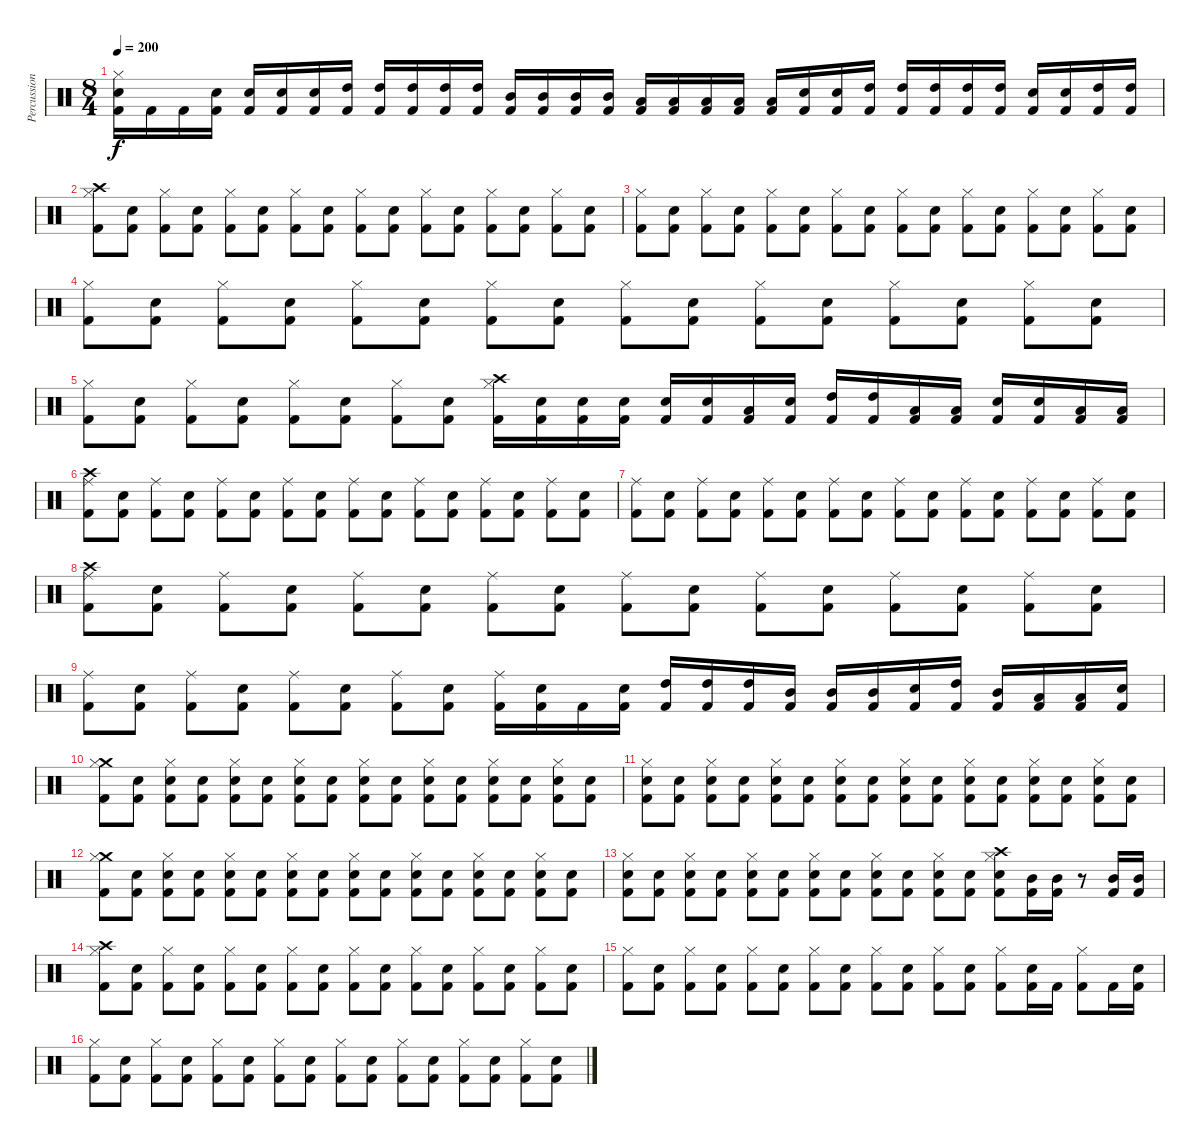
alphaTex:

\track ("Percussion" "Percussion") {instrument percussion}
\staff {score}
\articulation defaults
\ts (8 4)
\tempo 200
\clef neutral
\ks c
("Hi-Hat (closed)" "Electric Snare (hit)" "Kick (hit) 2").16{dy f} "Kick (hit) 2".16 "Kick (hit) 2".16 ("Electric Snare (hit)" "Kick (hit) 2").16 ("Electric Snare (hit)" "Kick (hit) 2").16 ("Electric Snare (hit)" "Kick (hit) 2").16 ("Electric Snare (hit)" "Kick (hit) 2").16 ("High Tom (hit)" "Kick (hit) 2").16 ("High Tom (hit)" "Kick (hit) 2").16 ("High Tom (hit)" "Kick (hit) 2").16 ("High Tom (hit)" "Kick (hit) 2").16 ("High Tom (hit)" "Kick (hit) 2").16 ("Mid Tom (hit)" "Kick (hit) 2").16 ("Mid Tom (hit)" "Kick (hit) 2").16 ("Mid Tom (hit)" "Kick (hit) 2").16 ("Mid Tom (hit)" "Kick (hit) 2").16 ("Low Tom (hit)" "Kick (hit) 2").16 ("Low Tom (hit)" "Kick (hit) 2").16 ("Low Tom (hit)" "Kick (hit) 2").16 ("Low Tom (hit)" "Kick (hit) 2").16 ("Low Tom (hit)" "Kick (hit) 2").16 ("Electric Snare (hit)" "Kick (hit) 2").16 ("Electric Snare (hit)" "Kick (hit) 2").16 ("High Tom (hit)" "Kick (hit) 2").16 ("High Tom (hit)" "Kick (hit) 2").16 ("High Tom (hit)" "Kick (hit) 2").16 ("High Tom (hit)" "Kick (hit) 2").16 ("High Tom (hit)" "Kick (hit) 2").16 ("Electric Snare (hit)" "Kick (hit) 2").16 ("Electric Snare (hit)" "Kick (hit) 2").16 ("High Tom (hit)" "Kick (hit) 2").16 ("High Tom (hit)" "Kick (hit) 2").16 |
("Crash high (hit)" "Hi-Hat (closed)" "Kick (hit) 2").8 ("Electric Snare (hit)" "Kick (hit) 2").8 ("Hi-Hat (closed)" "Kick (hit) 2").8 ("Electric Snare (hit)" "Kick (hit) 2").8 ("Hi-Hat (closed)" "Kick (hit) 2").8 ("Electric Snare (hit)" "Kick (hit) 2").8 ("Hi-Hat (closed)" "Kick (hit) 2").8 ("Electric Snare (hit)" "Kick (hit) 2").8 ("Hi-Hat (closed)" "Kick (hit) 2").8 ("Electric Snare (hit)" "Kick (hit) 2").8 ("Hi-Hat (closed)" "Kick (hit) 2").8 ("Electric Snare (hit)" "Kick (hit) 2").8 ("Hi-Hat (closed)" "Kick (hit) 2").8 ("Electric Snare (hit)" "Kick (hit) 2").8 ("Hi-Hat (closed)" "Kick (hit) 2").8 ("Electric Snare (hit)" "Kick (hit) 2").8 |
("Hi-Hat (closed)" "Kick (hit) 2").8 ("Electric Snare (hit)" "Kick (hit) 2").8 ("Hi-Hat (closed)" "Kick (hit) 2").8 ("Electric Snare (hit)" "Kick (hit) 2").8 ("Hi-Hat (closed)" "Kick (hit) 2").8 ("Electric Snare (hit)" "Kick (hit) 2").8 ("Hi-Hat (closed)" "Kick (hit) 2").8 ("Electric Snare (hit)" "Kick (hit) 2").8 ("Hi-Hat (closed)" "Kick (hit) 2").8 ("Electric Snare (hit)" "Kick (hit) 2").8 ("Hi-Hat (closed)" "Kick (hit) 2").8 ("Electric Snare (hit)" "Kick (hit) 2").8 ("Hi-Hat (closed)" "Kick (hit) 2").8 ("Electric Snare (hit)" "Kick (hit) 2").8 ("Hi-Hat (closed)" "Kick (hit) 2").8 ("Electric Snare (hit)" "Kick (hit) 2").8 |
("Hi-Hat (closed)" "Kick (hit) 2").8 ("Electric Snare (hit)" "Kick (hit) 2").8 ("Hi-Hat (closed)" "Kick (hit) 2").8 ("Electric Snare (hit)" "Kick (hit) 2").8 ("Hi-Hat (closed)" "Kick (hit) 2").8 ("Electric Snare (hit)" "Kick (hit) 2").8 ("Hi-Hat (closed)" "Kick (hit) 2").8 ("Electric Snare (hit)" "Kick (hit) 2").8 ("Hi-Hat (closed)" "Kick (hit) 2").8 ("Electric Snare (hit)" "Kick (hit) 2").8 ("Hi-Hat (closed)" "Kick (hit) 2").8 ("Electric Snare (hit)" "Kick (hit) 2").8 ("Hi-Hat (closed)" "Kick (hit) 2").8 ("Electric Snare (hit)" "Kick (hit) 2").8 ("Hi-Hat (closed)" "Kick (hit) 2").8 ("Electric Snare (hit)" "Kick (hit) 2").8 |
("Hi-Hat (closed)" "Kick (hit) 2").8 ("Electric Snare (hit)" "Kick (hit) 2").8 ("Hi-Hat (closed)" "Kick (hit) 2").8 ("Electric Snare (hit)" "Kick (hit) 2").8 ("Hi-Hat (closed)" "Kick (hit) 2").8 ("Electric Snare (hit)" "Kick (hit) 2").8 ("Hi-Hat (closed)" "Kick (hit) 2").8 ("Electric Snare (hit)" "Kick (hit) 2").8 ("Crash high (hit)" "Hi-Hat (closed)" "Kick (hit) 2").16 ("Electric Snare (hit)" "Kick (hit) 2").16 ("Electric Snare (hit)" "Kick (hit) 2").16 ("Electric Snare (hit)" "Kick (hit) 2").16 ("Electric Snare (hit)" "Kick (hit) 2").16 ("Electric Snare (hit)" "Kick (hit) 2").16 ("Low Tom (hit)" "Kick (hit) 2").16 ("Electric Snare (hit)" "Kick (hit) 2").16 ("High Tom (hit)" "Kick (hit) 2").16 ("High Tom (hit)" "Kick (hit) 2").16 ("Low Tom (hit)" "Kick (hit) 2").16 ("Low Tom (hit)" "Kick (hit) 2").16 ("Electric Snare (hit)" "Kick (hit) 2").16 ("Electric Snare (hit)" "Kick (hit) 2").16 ("Low Tom (hit)" "Kick (hit) 2").16 ("Low Tom (hit)" "Kick (hit) 2").16 |
("Crash high (hit)" "Ride (middle)" "Kick (hit) 2").8 ("Electric Snare (hit)" "Kick (hit) 2").8 ("Ride (middle)" "Kick (hit) 2").8 ("Electric Snare (hit)" "Kick (hit) 2").8 ("Ride (middle)" "Kick (hit) 2").8 ("Electric Snare (hit)" "Kick (hit) 2").8 ("Ride (middle)" "Kick (hit) 2").8 ("Electric Snare (hit)" "Kick (hit) 2").8 ("Ride (middle)" "Kick (hit) 2").8 ("Electric Snare (hit)" "Kick (hit) 2").8 ("Ride (middle)" "Kick (hit) 2").8 ("Electric Snare (hit)" "Kick (hit) 2").8 ("Ride (middle)" "Kick (hit) 2").8 ("Electric Snare (hit)" "Kick (hit) 2").8 ("Ride (middle)" "Kick (hit) 2").8 ("Electric Snare (hit)" "Kick (hit) 2").8 |
("Ride (middle)" "Kick (hit) 2").8 ("Electric Snare (hit)" "Kick (hit) 2").8 ("Ride (middle)" "Kick (hit) 2").8 ("Electric Snare (hit)" "Kick (hit) 2").8 ("Ride (middle)" "Kick (hit) 2").8 ("Electric Snare (hit)" "Kick (hit) 2").8 ("Ride (middle)" "Kick (hit) 2").8 ("Electric Snare (hit)" "Kick (hit) 2").8 ("Ride (middle)" "Kick (hit) 2").8 ("Electric Snare (hit)" "Kick (hit) 2").8 ("Ride (middle)" "Kick (hit) 2").8 ("Electric Snare (hit)" "Kick (hit) 2").8 ("Ride (middle)" "Kick (hit) 2").8 ("Electric Snare (hit)" "Kick (hit) 2").8 ("Ride (middle)" "Kick (hit) 2").8 ("Electric Snare (hit)" "Kick (hit) 2").8 |
("Crash high (hit)" "Ride (middle)" "Kick (hit) 2").8 ("Electric Snare (hit)" "Kick (hit) 2").8 ("Ride (middle)" "Kick (hit) 2").8 ("Electric Snare (hit)" "Kick (hit) 2").8 ("Ride (middle)" "Kick (hit) 2").8 ("Electric Snare (hit)" "Kick (hit) 2").8 ("Ride (middle)" "Kick (hit) 2").8 ("Electric Snare (hit)" "Kick (hit) 2").8 ("Ride (middle)" "Kick (hit) 2").8 ("Electric Snare (hit)" "Kick (hit) 2").8 ("Ride (middle)" "Kick (hit) 2").8 ("Electric Snare (hit)" "Kick (hit) 2").8 ("Ride (middle)" "Kick (hit) 2").8 ("Electric Snare (hit)" "Kick (hit) 2").8 ("Ride (middle)" "Kick (hit) 2").8 ("Electric Snare (hit)" "Kick (hit) 2").8 |
("Ride (middle)" "Kick (hit) 2").8 ("Electric Snare (hit)" "Kick (hit) 2").8 ("Ride (middle)" "Kick (hit) 2").8 ("Electric Snare (hit)" "Kick (hit) 2").8 ("Ride (middle)" "Kick (hit) 2").8 ("Electric Snare (hit)" "Kick (hit) 2").8 ("Ride (middle)" "Kick (hit) 2").8 ("Electric Snare (hit)" "Kick (hit) 2").8 ("Ride (middle)" "Kick (hit) 2").16 ("Electric Snare (hit)" "Kick (hit) 2").16 "Kick (hit) 2".16 ("Electric Snare (hit)" "Kick (hit) 2").16 ("High Tom (hit)" "Kick (hit) 2").16 ("High Tom (hit)" "Kick (hit) 2").16 ("High Tom (hit)" "Kick (hit) 2").16 ("Mid Tom (hit)" "Kick (hit) 2").16 ("Mid Tom (hit)" "Kick (hit) 2").16 ("Mid Tom (hit)" "Kick (hit) 2").16 ("Electric Snare (hit)" "Kick (hit) 2").16 ("High Tom (hit)" "Kick (hit) 2").16 ("Mid Tom (hit)" "Kick (hit) 2").16 ("Low Tom (hit)" "Kick (hit) 2").16 ("Low Tom (hit)" "Kick (hit) 2").16 ("Electric Snare (hit)" "Kick (hit) 2").16 |
("Crash medium (hit)" "Hi-Hat (closed)" "Kick (hit) 2").8 ("Electric Snare (hit)" "Kick (hit) 2").8 ("Hi-Hat (closed)" "Electric Snare (hit)" "Kick (hit) 2").8 ("Electric Snare (hit)" "Kick (hit) 2").8 ("Hi-Hat (closed)" "Electric Snare (hit)" "Kick (hit) 2").8 ("Electric Snare (hit)" "Kick (hit) 2").8 ("Hi-Hat (closed)" "Electric Snare (hit)" "Kick (hit) 2").8 ("Electric Snare (hit)" "Kick (hit) 2").8 ("Hi-Hat (closed)" "Electric Snare (hit)" "Kick (hit) 2").8 ("Electric Snare (hit)" "Kick (hit) 2").8 ("Hi-Hat (closed)" "Electric Snare (hit)" "Kick (hit) 2").8 ("Electric Snare (hit)" "Kick (hit) 2").8 ("Hi-Hat (closed)" "Electric Snare (hit)" "Kick (hit) 2").8 ("Electric Snare (hit)" "Kick (hit) 2").8 ("Hi-Hat (closed)" "Electric Snare (hit)" "Kick (hit) 2").8 ("Electric Snare (hit)" "Kick (hit) 2").8 |
("Hi-Hat (closed)" "Electric Snare (hit)" "Kick (hit) 2").8 ("Electric Snare (hit)" "Kick (hit) 2").8 ("Hi-Hat (closed)" "Electric Snare (hit)" "Kick (hit) 2").8 ("Electric Snare (hit)" "Kick (hit) 2").8 ("Hi-Hat (closed)" "Electric Snare (hit)" "Kick (hit) 2").8 ("Electric Snare (hit)" "Kick (hit) 2").8 ("Hi-Hat (closed)" "Electric Snare (hit)" "Kick (hit) 2").8 ("Electric Snare (hit)" "Kick (hit) 2").8 ("Hi-Hat (closed)" "Electric Snare (hit)" "Kick (hit) 2").8 ("Electric Snare (hit)" "Kick (hit) 2").8 ("Hi-Hat (closed)" "Electric Snare (hit)" "Kick (hit) 2").8 ("Electric Snare (hit)" "Kick (hit) 2").8 ("Hi-Hat (closed)" "Electric Snare (hit)" "Kick (hit) 2").8 ("Electric Snare (hit)" "Kick (hit) 2").8 ("Hi-Hat (closed)" "Electric Snare (hit)" "Kick (hit) 2").8 ("Electric Snare (hit)" "Kick (hit) 2").8 |
("Crash medium (hit)" "Hi-Hat (closed)" "Kick (hit) 2").8 ("Electric Snare (hit)" "Kick (hit) 2").8 ("Hi-Hat (closed)" "Electric Snare (hit)" "Kick (hit) 2").8 ("Electric Snare (hit)" "Kick (hit) 2").8 ("Hi-Hat (closed)" "Electric Snare (hit)" "Kick (hit) 2").8 ("Electric Snare (hit)" "Kick (hit) 2").8 ("Hi-Hat (closed)" "Electric Snare (hit)" "Kick (hit) 2").8 ("Electric Snare (hit)" "Kick (hit) 2").8 ("Hi-Hat (closed)" "Electric Snare (hit)" "Kick (hit) 2").8 ("Electric Snare (hit)" "Kick (hit) 2").8 ("Hi-Hat (closed)" "Electric Snare (hit)" "Kick (hit) 2").8 ("Electric Snare (hit)" "Kick (hit) 2").8 ("Hi-Hat (closed)" "Electric Snare (hit)" "Kick (hit) 2").8 ("Electric Snare (hit)" "Kick (hit) 2").8 ("Hi-Hat (closed)" "Electric Snare (hit)" "Kick (hit) 2").8 ("Electric Snare (hit)" "Kick (hit) 2").8 |
("Hi-Hat (closed)" "Electric Snare (hit)" "Kick (hit) 2").8 ("Electric Snare (hit)" "Kick (hit) 2").8 ("Hi-Hat (closed)" "Electric Snare (hit)" "Kick (hit) 2").8 ("Electric Snare (hit)" "Kick (hit) 2").8 ("Hi-Hat (closed)" "Electric Snare (hit)" "Kick (hit) 2").8 ("Electric Snare (hit)" "Kick (hit) 2").8 ("Hi-Hat (closed)" "Electric Snare (hit)" "Kick (hit) 2").8 ("Electric Snare (hit)" "Kick (hit) 2").8 ("Hi-Hat (closed)" "Electric Snare (hit)" "Kick (hit) 2").8 ("Electric Snare (hit)" "Kick (hit) 2").8 ("Hi-Hat (closed)" "Electric Snare (hit)" "Kick (hit) 2").8 ("Electric Snare (hit)" "Kick (hit) 2").8 ("Crash high (hit)" "Hi-Hat (closed)" "Electric Snare (hit)" "Kick (hit) 2").8 ("Mid Tom (hit)" "Kick (hit) 2").16 ("Mid Tom (hit)" "Kick (hit) 2").16 r.8 ("Mid Tom (hit)" "Kick (hit) 2").16 ("Mid Tom (hit)" "Kick (hit) 2").16 |
("Crash high (hit)" "Hi-Hat (closed)" "Kick (hit) 2").8 ("Electric Snare (hit)" "Kick (hit) 2").8 ("Hi-Hat (closed)" "Kick (hit) 2").8 ("Electric Snare (hit)" "Kick (hit) 2").8 ("Hi-Hat (closed)" "Kick (hit) 2").8 ("Electric Snare (hit)" "Kick (hit) 2").8 ("Hi-Hat (closed)" "Kick (hit) 2").8 ("Electric Snare (hit)" "Kick (hit) 2").8 ("Hi-Hat (closed)" "Kick (hit) 2").8 ("Electric Snare (hit)" "Kick (hit) 2").8 ("Hi-Hat (closed)" "Kick (hit) 2").8 ("Electric Snare (hit)" "Kick (hit) 2").8 ("Hi-Hat (closed)" "Kick (hit) 2").8 ("Electric Snare (hit)" "Kick (hit) 2").8 ("Hi-Hat (closed)" "Kick (hit) 2").8 ("Electric Snare (hit)" "Kick (hit) 2").8 |
("Hi-Hat (closed)" "Kick (hit) 2").8 ("Electric Snare (hit)" "Kick (hit) 2").8 ("Hi-Hat (closed)" "Kick (hit) 2").8 ("Electric Snare (hit)" "Kick (hit) 2").8 ("Hi-Hat (closed)" "Kick (hit) 2").8 ("Electric Snare (hit)" "Kick (hit) 2").8 ("Hi-Hat (closed)" "Kick (hit) 2").8 ("Electric Snare (hit)" "Kick (hit) 2").8 ("Hi-Hat (closed)" "Kick (hit) 2").8 ("Electric Snare (hit)" "Kick (hit) 2").8 ("Hi-Hat (closed)" "Kick (hit) 2").8 ("Electric Snare (hit)" "Kick (hit) 2").8 ("Hi-Hat (closed)" "Kick (hit) 2").8 ("Electric Snare (hit)" "Kick (hit) 2").16 "Kick (hit) 2".16 ("Hi-Hat (closed)" "Kick (hit) 2").8 "Kick (hit) 2".16 ("Electric Snare (hit)" "Kick (hit) 2").16 |
("Hi-Hat (closed)" "Kick (hit) 2").8 ("Electric Snare (hit)" "Kick (hit) 2").8 ("Hi-Hat (closed)" "Kick (hit) 2").8 ("Electric Snare (hit)" "Kick (hit) 2").8 ("Hi-Hat (closed)" "Kick (hit) 2").8 ("Electric Snare (hit)" "Kick (hit) 2").8 ("Hi-Hat (closed)" "Kick (hit) 2").8 ("Electric Snare (hit)" "Kick (hit) 2").8 ("Hi-Hat (closed)" "Kick (hit) 2").8 ("Electric Snare (hit)" "Kick (hit) 2").8 ("Hi-Hat (closed)" "Kick (hit) 2").8 ("Electric Snare (hit)" "Kick (hit) 2").8 ("Hi-Hat (closed)" "Kick (hit) 2").8 ("Electric Snare (hit)" "Kick (hit) 2").8 ("Hi-Hat (closed)" "Kick (hit) 2").8 ("Electric Snare (hit)" "Kick (hit) 2").8
